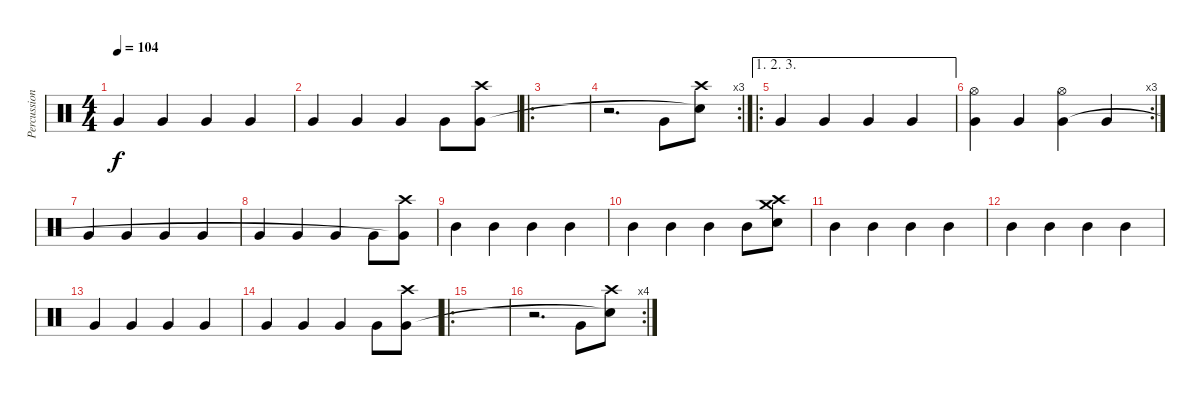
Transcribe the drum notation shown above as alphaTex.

\track ("Percussion" "Percussion") {instrument percussion}
\staff {score}
\articulation defaults
\ts (4 4)
\tempo 104
\clef neutral
\ks c "Very Low Tom (hit)".4{dy f} "Very Low Tom (hit)".4 "Very Low Tom (hit)".4 "Very Low Tom (hit)".4
|
"Very Low Tom (hit)".4 "Very Low Tom (hit)".4 "Very Low Tom (hit)".4 "Very Low Tom (hit)".8 ("Crash high (hit)" "Very Low Tom (hit)").8 |
\ro
|
\rc 3
r.2{d} "Very Low Tom (hit)".8 ("Crash high (hit)" "Snare (hit)"{t}).8 |
\ae (1 2 3)
\ro "Very Low Tom (hit)".4 "Very Low Tom (hit)".4 "Very Low Tom (hit)".4 "Very Low Tom (hit)".4
|
\rc 3
("Hi-Hat (open)" "Very Low Tom (hit)").4 "Very Low Tom (hit)".4 ("Hi-Hat (open)" "Very Low Tom (hit)").4 "Very Low Tom (hit)".4 |
"Very Low Tom (hit)".4 "Very Low Tom (hit)".4 "Very Low Tom (hit)".4 "Very Low Tom (hit)".4 |
"Very Low Tom (hit)".4 "Very Low Tom (hit)".4 "Very Low Tom (hit)".4 "Very Low Tom (hit)".8 ("Crash high (hit)" "Very Low Tom (hit)"{t}).8 |
"Mid Tom (hit)".4 "Mid Tom (hit)".4 "Mid Tom (hit)".4 "Mid Tom (hit)".4 |
"Mid Tom (hit)".4 "Mid Tom (hit)".4 "Mid Tom (hit)".4 "Mid Tom (hit)".8 ("Crash medium (hit)" "Crash high (hit)" "Snare (hit)").8 |
"Mid Tom (hit)".4 "Mid Tom (hit)".4 "Mid Tom (hit)".4 "Mid Tom (hit)".4 |
"Mid Tom (hit)".4 "Mid Tom (hit)".4 "Mid Tom (hit)".4 "Mid Tom (hit)".4 |
"Very Low Tom (hit)".4 "Very Low Tom (hit)".4 "Very Low Tom (hit)".4 "Very Low Tom (hit)".4 |
"Very Low Tom (hit)".4 "Very Low Tom (hit)".4 "Very Low Tom (hit)".4 "Very Low Tom (hit)".8 ("Crash high (hit)" "Very Low Tom (hit)").8 |
\ro
|
\rc 4
r.2{d} "Very Low Tom (hit)".8 ("Crash high (hit)" "Snare (hit)"{t}).8
